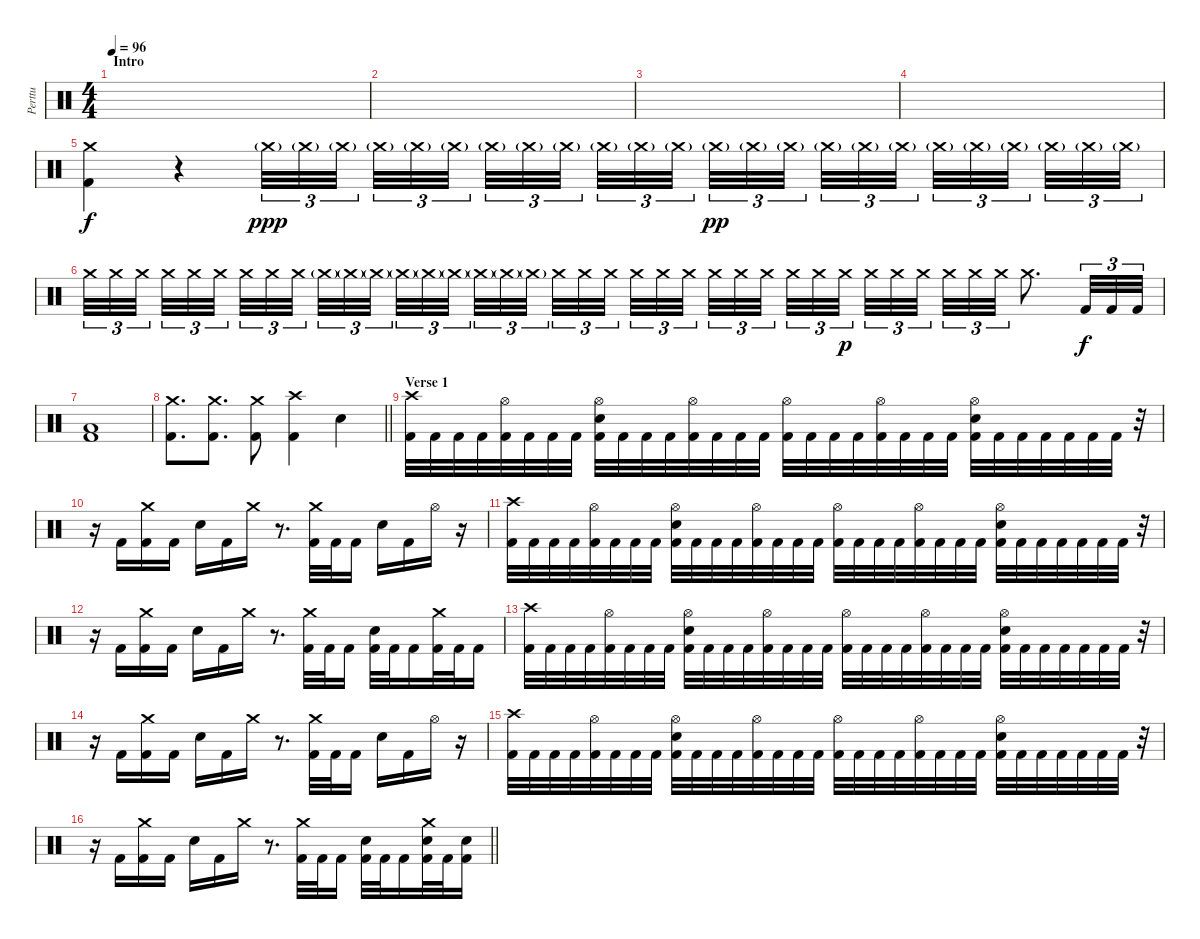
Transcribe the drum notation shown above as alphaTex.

\track ("Perttu" "Perttu") {instrument percussion}
\staff {score}
\articulation defaults
\ts (4 4)
\section ("" "Intro")
\tempo 96
\clef neutral
\ks c
|
|
|
|
("Crash medium (hit)" "Kick (hit) 2").4 r.4 "Crash medium (hit)"{g}.32{tu (3 2) dy ppp} "Crash medium (hit)"{g}.32{tu (3 2)} "Crash medium (hit)"{g}.32{tu (3 2)} "Crash medium (hit)"{g}.32{tu (3 2)} "Crash medium (hit)"{g}.32{tu (3 2)} "Crash medium (hit)"{g}.32{tu (3 2)} "Crash medium (hit)"{g}.32{tu (3 2)} "Crash medium (hit)"{g}.32{tu (3 2)} "Crash medium (hit)"{g}.32{tu (3 2)} "Crash medium (hit)"{g}.32{tu (3 2)} "Crash medium (hit)"{g}.32{tu (3 2)} "Crash medium (hit)"{g}.32{tu (3 2)} "Crash medium (hit)"{g}.32{tu (3 2) dy pp} "Crash medium (hit)"{g}.32{tu (3 2)} "Crash medium (hit)"{g}.32{tu (3 2)} "Crash medium (hit)"{g}.32{tu (3 2)} "Crash medium (hit)"{g}.32{tu (3 2)} "Crash medium (hit)"{g}.32{tu (3 2)} "Crash medium (hit)"{g}.32{tu (3 2)} "Crash medium (hit)"{g}.32{tu (3 2)} "Crash medium (hit)"{g}.32{tu (3 2)} "Crash medium (hit)"{g}.32{tu (3 2)} "Crash medium (hit)"{g}.32{tu (3 2)} "Crash medium (hit)"{g}.32{tu (3 2)} |
"Crash medium (hit)".32{tu (3 2)} "Crash medium (hit)".32{tu (3 2)} "Crash medium (hit)".32{tu (3 2)} "Crash medium (hit)".32{tu (3 2)} "Crash medium (hit)".32{tu (3 2)} "Crash medium (hit)".32{tu (3 2)} "Crash medium (hit)".32{tu (3 2)} "Crash medium (hit)".32{tu (3 2)} "Crash medium (hit)".32{tu (3 2)} "Crash medium (hit)"{g}.32{tu (3 2)} "Crash medium (hit)"{g}.32{tu (3 2)} "Crash medium (hit)"{g}.32{tu (3 2)} "Crash medium (hit)"{g}.32{tu (3 2)} "Crash medium (hit)"{g}.32{tu (3 2)} "Crash medium (hit)"{g}.32{tu (3 2)} "Crash medium (hit)"{g}.32{tu (3 2)} "Crash medium (hit)"{g}.32{tu (3 2)} "Crash medium (hit)"{g}.32{tu (3 2)} "Crash medium (hit)".32{tu (3 2)} "Crash medium (hit)".32{tu (3 2)} "Crash medium (hit)".32{tu (3 2)} "Crash medium (hit)".32{tu (3 2)} "Crash medium (hit)".32{tu (3 2)} "Crash medium (hit)".32{tu (3 2)} "Crash medium (hit)".32{tu (3 2)} "Crash medium (hit)".32{tu (3 2)} "Crash medium (hit)".32{tu (3 2)} "Crash medium (hit)".32{tu (3 2)} "Crash medium (hit)".32{tu (3 2)} "Crash medium (hit)".32{tu (3 2) dy p} "Crash medium (hit)".32{tu (3 2)} "Crash medium (hit)".32{tu (3 2)} "Crash medium (hit)".32{tu (3 2)} "Crash medium (hit)".32{tu (3 2)} "Crash medium (hit)".32{tu (3 2)} "Crash medium (hit)".32{tu (3 2)} "Crash medium (hit)".8{d} "Kick (hit) 2".32{tu (3 2) dy f} "Kick (hit) 2".32{tu (3 2)} "Kick (hit) 2".32{tu (3 2)} |
("Low Tom (hit)" "Kick (hit) 2").1 |
\barLineRight lightlight
("Crash medium (hit)" "Kick (hit) 2").8{d} ("Crash medium (hit)" "Kick (hit) 2").8{d} ("Crash medium (hit)" "Kick (hit) 2").8 ("Crash high (hit)" "Kick (hit) 2").4 "Electric Snare (hit)".4 |
\section ("" "Verse 1")
("Crash high (hit)" "Kick (hit) 2").32 "Kick (hit) 2".32 "Kick (hit) 2".32 "Kick (hit) 2".32 ("Hi-Hat (open)" "Kick (hit) 2").32 "Kick (hit) 2".32 "Kick (hit) 2".32 "Kick (hit) 2".32 ("Hi-Hat (open)" "Electric Snare (hit)" "Kick (hit) 2").32 "Kick (hit) 2".32 "Kick (hit) 2".32 "Kick (hit) 2".32 ("Hi-Hat (open)" "Kick (hit) 2").32 "Kick (hit) 2".32 "Kick (hit) 2".32 "Kick (hit) 2".32 ("Hi-Hat (open)" "Kick (hit) 2").32 "Kick (hit) 2".32 "Kick (hit) 2".32 "Kick (hit) 2".32 ("Hi-Hat (open)" "Kick (hit) 2").32 "Kick (hit) 2".32 "Kick (hit) 2".32 "Kick (hit) 2".32 ("Hi-Hat (open)" "Electric Snare (hit)" "Kick (hit) 2").32 "Kick (hit) 2".32 "Kick (hit) 2".32 "Kick (hit) 2".32 "Kick (hit) 2".32 "Kick (hit) 2".32 "Kick (hit) 2".32 r.32 |
r.16 "Kick (hit) 2".16 ("Crash medium (hit)" "Kick (hit) 2").16 "Kick (hit) 2".16 "Electric Snare (hit)".16 "Kick (hit) 2".16 "Crash medium (hit)".16 r.8{d} ("Crash medium (hit)" "Kick (hit) 2").32 "Kick (hit) 2".32 "Kick (hit) 2".16 "Electric Snare (hit)".16 "Kick (hit) 2".16 "Hi-Hat (open)".16 r.16 |
("Crash high (hit)" "Kick (hit) 2").32 "Kick (hit) 2".32 "Kick (hit) 2".32 "Kick (hit) 2".32 ("Hi-Hat (open)" "Kick (hit) 2").32 "Kick (hit) 2".32 "Kick (hit) 2".32 "Kick (hit) 2".32 ("Hi-Hat (open)" "Electric Snare (hit)" "Kick (hit) 2").32 "Kick (hit) 2".32 "Kick (hit) 2".32 "Kick (hit) 2".32 ("Hi-Hat (open)" "Kick (hit) 2").32 "Kick (hit) 2".32 "Kick (hit) 2".32 "Kick (hit) 2".32 ("Hi-Hat (open)" "Kick (hit) 2").32 "Kick (hit) 2".32 "Kick (hit) 2".32 "Kick (hit) 2".32 ("Hi-Hat (open)" "Kick (hit) 2").32 "Kick (hit) 2".32 "Kick (hit) 2".32 "Kick (hit) 2".32 ("Hi-Hat (open)" "Electric Snare (hit)" "Kick (hit) 2").32 "Kick (hit) 2".32 "Kick (hit) 2".32 "Kick (hit) 2".32 "Kick (hit) 2".32 "Kick (hit) 2".32 "Kick (hit) 2".32 r.32 |
r.16 "Kick (hit) 2".16 ("Crash medium (hit)" "Kick (hit) 2").16 "Kick (hit) 2".16 "Electric Snare (hit)".16 "Kick (hit) 2".16 "Crash medium (hit)".16 r.8{d} ("Crash medium (hit)" "Kick (hit) 2").32 "Kick (hit) 2".32 "Kick (hit) 2".16 ("Electric Snare (hit)" "Kick (hit) 2").32 "Kick (hit) 2".32 "Kick (hit) 2".16 ("Crash medium (hit)" "Kick (hit) 2").32 "Kick (hit) 2".32 "Kick (hit) 2".16 |
("Crash high (hit)" "Kick (hit) 2").32 "Kick (hit) 2".32 "Kick (hit) 2".32 "Kick (hit) 2".32 ("Hi-Hat (open)" "Kick (hit) 2").32 "Kick (hit) 2".32 "Kick (hit) 2".32 "Kick (hit) 2".32 ("Hi-Hat (open)" "Electric Snare (hit)" "Kick (hit) 2").32 "Kick (hit) 2".32 "Kick (hit) 2".32 "Kick (hit) 2".32 ("Hi-Hat (open)" "Kick (hit) 2").32 "Kick (hit) 2".32 "Kick (hit) 2".32 "Kick (hit) 2".32 ("Hi-Hat (open)" "Kick (hit) 2").32 "Kick (hit) 2".32 "Kick (hit) 2".32 "Kick (hit) 2".32 ("Hi-Hat (open)" "Kick (hit) 2").32 "Kick (hit) 2".32 "Kick (hit) 2".32 "Kick (hit) 2".32 ("Hi-Hat (open)" "Electric Snare (hit)" "Kick (hit) 2").32 "Kick (hit) 2".32 "Kick (hit) 2".32 "Kick (hit) 2".32 "Kick (hit) 2".32 "Kick (hit) 2".32 "Kick (hit) 2".32 r.32 |
r.16 "Kick (hit) 2".16 ("Crash medium (hit)" "Kick (hit) 2").16 "Kick (hit) 2".16 "Electric Snare (hit)".16 "Kick (hit) 2".16 "Crash medium (hit)".16 r.8{d} ("Crash medium (hit)" "Kick (hit) 2").32 "Kick (hit) 2".32 "Kick (hit) 2".16 "Electric Snare (hit)".16 "Kick (hit) 2".16 "Hi-Hat (open)".16 r.16 |
("Crash high (hit)" "Kick (hit) 2").32 "Kick (hit) 2".32 "Kick (hit) 2".32 "Kick (hit) 2".32 ("Hi-Hat (open)" "Kick (hit) 2").32 "Kick (hit) 2".32 "Kick (hit) 2".32 "Kick (hit) 2".32 ("Hi-Hat (open)" "Electric Snare (hit)" "Kick (hit) 2").32 "Kick (hit) 2".32 "Kick (hit) 2".32 "Kick (hit) 2".32 ("Hi-Hat (open)" "Kick (hit) 2").32 "Kick (hit) 2".32 "Kick (hit) 2".32 "Kick (hit) 2".32 ("Hi-Hat (open)" "Kick (hit) 2").32 "Kick (hit) 2".32 "Kick (hit) 2".32 "Kick (hit) 2".32 ("Hi-Hat (open)" "Kick (hit) 2").32 "Kick (hit) 2".32 "Kick (hit) 2".32 "Kick (hit) 2".32 ("Hi-Hat (open)" "Electric Snare (hit)" "Kick (hit) 2").32 "Kick (hit) 2".32 "Kick (hit) 2".32 "Kick (hit) 2".32 "Kick (hit) 2".32 "Kick (hit) 2".32 "Kick (hit) 2".32 r.32 |
\barLineRight lightlight
r.16 "Kick (hit) 2".16 ("Crash medium (hit)" "Kick (hit) 2").16 "Kick (hit) 2".16 "Electric Snare (hit)".16 "Kick (hit) 2".16 "Crash medium (hit)".16 r.8{d} ("Crash medium (hit)" "Kick (hit) 2").32 "Kick (hit) 2".32 "Kick (hit) 2".16 ("Electric Snare (hit)" "Kick (hit) 2").32 "Kick (hit) 2".32 "Kick (hit) 2".16 ("Crash medium (hit)" "Electric Snare (hit)" "Kick (hit) 2").32 "Kick (hit) 2".32 ("Electric Snare (hit)" "Kick (hit) 2").16
